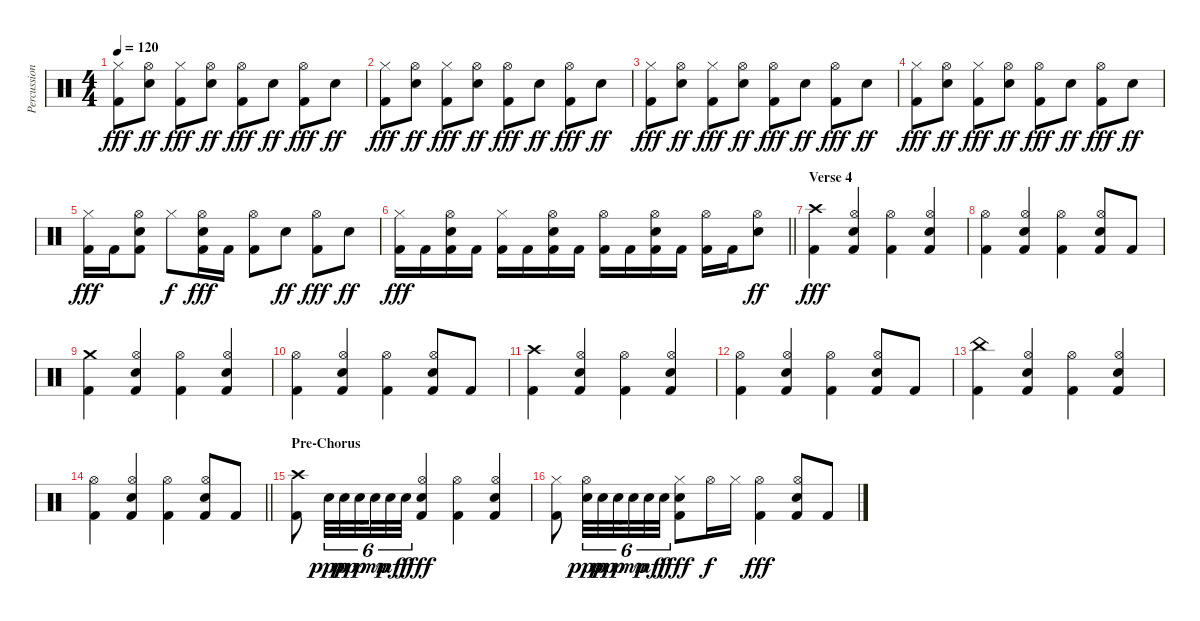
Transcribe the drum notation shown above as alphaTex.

\track ("Percussion" "Percussion") {instrument percussion}
\staff {score}
\articulation defaults
\ts (4 4)
\tempo 120
\clef neutral
\ks c
("Hi-Hat (closed)" "Kick (hit) 2").8{dy fff} ("Hi-Hat (open)" "Electric Snare (hit)").8{dy ff} ("Hi-Hat (closed)" "Kick (hit) 2").8{dy fff} ("Hi-Hat (open)" "Electric Snare (hit)").8{dy ff} ("Hi-Hat (open)" "Kick (hit) 2").8{dy fff} "Electric Snare (hit)".8{dy ff} ("Hi-Hat (open)" "Kick (hit) 2").8{dy fff} "Electric Snare (hit)".8{dy ff} |
("Hi-Hat (closed)" "Kick (hit) 2").8{dy fff} ("Hi-Hat (open)" "Electric Snare (hit)").8{dy ff} ("Hi-Hat (closed)" "Kick (hit) 2").8{dy fff} ("Hi-Hat (open)" "Electric Snare (hit)").8{dy ff} ("Hi-Hat (open)" "Kick (hit) 2").8{dy fff} "Electric Snare (hit)".8{dy ff} ("Hi-Hat (open)" "Kick (hit) 2").8{dy fff} "Electric Snare (hit)".8{dy ff} |
("Hi-Hat (closed)" "Kick (hit) 2").8{dy fff} ("Hi-Hat (open)" "Electric Snare (hit)").8{dy ff} ("Hi-Hat (closed)" "Kick (hit) 2").8{dy fff} ("Hi-Hat (open)" "Electric Snare (hit)").8{dy ff} ("Hi-Hat (open)" "Kick (hit) 2").8{dy fff} "Electric Snare (hit)".8{dy ff} ("Hi-Hat (open)" "Kick (hit) 2").8{dy fff} "Electric Snare (hit)".8{dy ff} |
("Hi-Hat (closed)" "Kick (hit) 2").8{dy fff} ("Hi-Hat (open)" "Electric Snare (hit)").8{dy ff} ("Hi-Hat (closed)" "Kick (hit) 2").8{dy fff} ("Hi-Hat (open)" "Electric Snare (hit)").8{dy ff} ("Hi-Hat (open)" "Kick (hit) 2").8{dy fff} "Electric Snare (hit)".8{dy ff} ("Hi-Hat (open)" "Kick (hit) 2").8{dy fff} "Electric Snare (hit)".8{dy ff} |
("Hi-Hat (closed)" "Kick (hit) 2").16{dy fff} "Kick (hit) 2".16 ("Hi-Hat (open)" "Electric Snare (hit)" "Kick (hit) 2").8 "Hi-Hat (closed)".8{dy f} ("Hi-Hat (open)" "Electric Snare (hit)" "Kick (hit) 2").16{dy fff} "Kick (hit) 2".16 ("Hi-Hat (open)" "Kick (hit) 2").8 "Electric Snare (hit)".8{dy ff} ("Hi-Hat (open)" "Kick (hit) 2").8{dy fff} "Electric Snare (hit)".8{dy ff} |
\barLineRight lightlight
("Hi-Hat (closed)" "Kick (hit) 2").16{dy fff} "Kick (hit) 2".16 ("Hi-Hat (open)" "Electric Snare (hit)" "Kick (hit) 2").16 "Kick (hit) 2".16 ("Hi-Hat (closed)" "Kick (hit) 2").16 "Kick (hit) 2".16 ("Hi-Hat (open)" "Electric Snare (hit)" "Kick (hit) 2").16 "Kick (hit) 2".16 ("Hi-Hat (open)" "Kick (hit) 2").16 "Kick (hit) 2".16 ("Hi-Hat (open)" "Electric Snare (hit)" "Kick (hit) 2").16 "Kick (hit) 2".16 ("Hi-Hat (open)" "Kick (hit) 2").16 "Kick (hit) 2".16 ("Hi-Hat (open)" "Electric Snare (hit)").8{dy ff} |
\section ("" "Verse 4")
("Crash high (hit)" "Kick (hit) 2").4{dy fff} ("Hi-Hat (open)" "Electric Snare (hit)" "Kick (hit) 2").4 ("Hi-Hat (open)" "Kick (hit) 2").4 ("Hi-Hat (open)" "Electric Snare (hit)" "Kick (hit) 2").4 |
("Hi-Hat (open)" "Kick (hit) 2").4 ("Hi-Hat (open)" "Electric Snare (hit)" "Kick (hit) 2").4 ("Hi-Hat (open)" "Kick (hit) 2").4 ("Hi-Hat (open)" "Electric Snare (hit)" "Kick (hit) 2").8 "Kick (hit) 2".8 |
("Crash medium (hit)" "Kick (hit) 2").4 ("Hi-Hat (open)" "Electric Snare (hit)" "Kick (hit) 2").4 ("Hi-Hat (open)" "Kick (hit) 2").4 ("Hi-Hat (open)" "Electric Snare (hit)" "Kick (hit) 2").4 |
("Hi-Hat (open)" "Kick (hit) 2").4 ("Hi-Hat (open)" "Electric Snare (hit)" "Kick (hit) 2").4 ("Hi-Hat (open)" "Kick (hit) 2").4 ("Hi-Hat (open)" "Electric Snare (hit)" "Kick (hit) 2").8 "Kick (hit) 2".8 |
("Crash high (hit)" "Kick (hit) 2").4 ("Hi-Hat (open)" "Electric Snare (hit)" "Kick (hit) 2").4 ("Hi-Hat (open)" "Kick (hit) 2").4 ("Hi-Hat (open)" "Electric Snare (hit)" "Kick (hit) 2").4 |
("Hi-Hat (open)" "Kick (hit) 2").4 ("Hi-Hat (open)" "Electric Snare (hit)" "Kick (hit) 2").4 ("Hi-Hat (open)" "Kick (hit) 2").4 ("Hi-Hat (open)" "Electric Snare (hit)" "Kick (hit) 2").8 "Kick (hit) 2".8 |
("China (hit)" "Kick (hit) 2").4 ("Hi-Hat (open)" "Electric Snare (hit)" "Kick (hit) 2").4 ("Hi-Hat (open)" "Kick (hit) 2").4 ("Hi-Hat (open)" "Electric Snare (hit)" "Kick (hit) 2").4 |
\barLineRight lightlight
("Hi-Hat (open)" "Kick (hit) 2").4 ("Hi-Hat (open)" "Electric Snare (hit)" "Kick (hit) 2").4 ("Hi-Hat (open)" "Kick (hit) 2").4 ("Hi-Hat (open)" "Electric Snare (hit)" "Kick (hit) 2").8 "Kick (hit) 2".8 |
\section ("" "Pre-Chorus")
("Crash high (hit)" "Kick (hit) 2").8 "Electric Snare (hit)".32{tu (6 4) dy ppp} "Electric Snare (hit)".32{tu (6 4) dy pp} "Electric Snare (hit)".32{tu (6 4) dy p beam splitsecondary} "Electric Snare (hit)".32{tu (6 4) dy mp} "Electric Snare (hit)".32{tu (6 4) dy mf} "Electric Snare (hit)".32{tu (6 4) dy f} ("Hi-Hat (open)" "Electric Snare (hit)" "Kick (hit) 2").4{dy fff} ("Hi-Hat (open)" "Kick (hit) 2").4 ("Hi-Hat (open)" "Electric Snare (hit)" "Kick (hit) 2").4 |
("Hi-Hat (closed)" "Kick (hit) 2").8 ("Hi-Hat (open)" "Electric Snare (hit)").32{tu (6 4) dy ppp} "Electric Snare (hit)".32{tu (6 4) dy pp} "Electric Snare (hit)".32{tu (6 4) dy p beam splitsecondary} "Electric Snare (hit)".32{tu (6 4) dy mp} "Electric Snare (hit)".32{tu (6 4) dy mf} "Electric Snare (hit)".32{tu (6 4) dy f} ("Hi-Hat (closed)" "Electric Snare (hit)" "Kick (hit) 2").8{dy fff} "Hi-Hat (open)".16{dy f} "Hi-Hat (closed)".16 ("Hi-Hat (open)" "Kick (hit) 2").4{dy fff} ("Hi-Hat (open)" "Electric Snare (hit)" "Kick (hit) 2").8 "Kick (hit) 2".8
